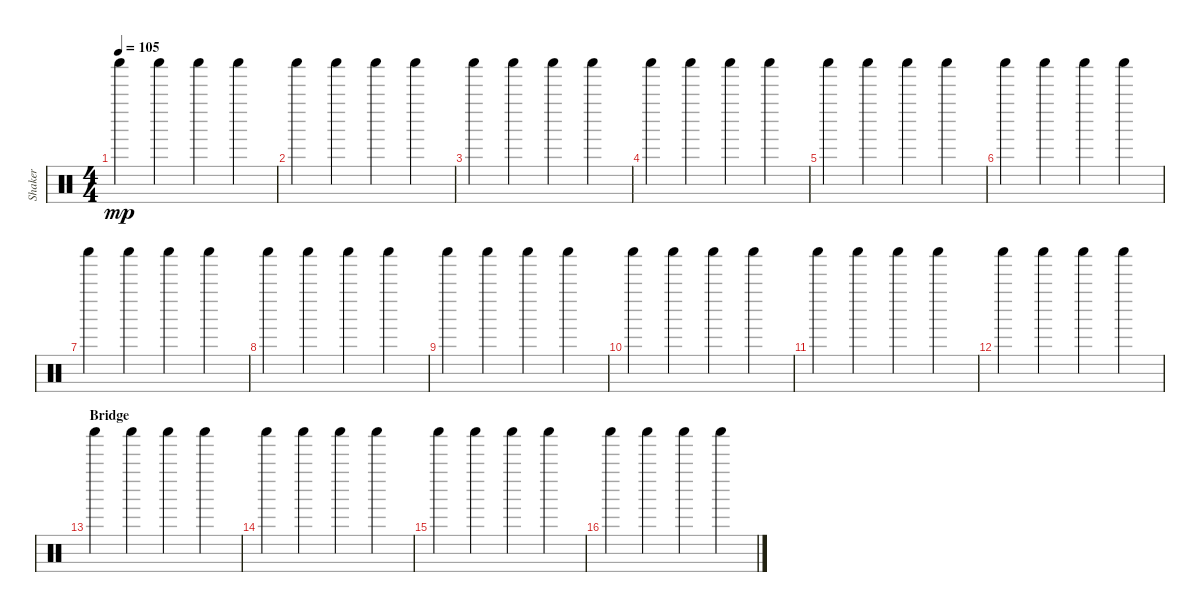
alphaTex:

\track ("Shaker" "Shaker") {instrument percussion}
\staff {score}
\articulation defaults
\ts (4 4)
\tempo 105
\clef neutral
\ks c "Shaker (hit)".4{dy mp} "Shaker (hit)".4 "Shaker (hit)".4 "Shaker (hit)".4
|
"Shaker (hit)".4 "Shaker (hit)".4 "Shaker (hit)".4 "Shaker (hit)".4 |
"Shaker (hit)".4 "Shaker (hit)".4 "Shaker (hit)".4 "Shaker (hit)".4 |
"Shaker (hit)".4 "Shaker (hit)".4 "Shaker (hit)".4 "Shaker (hit)".4 |
"Shaker (hit)".4 "Shaker (hit)".4 "Shaker (hit)".4 "Shaker (hit)".4 |
"Shaker (hit)".4 "Shaker (hit)".4 "Shaker (hit)".4 "Shaker (hit)".4 |
"Shaker (hit)".4 "Shaker (hit)".4 "Shaker (hit)".4 "Shaker (hit)".4 |
"Shaker (hit)".4 "Shaker (hit)".4 "Shaker (hit)".4 "Shaker (hit)".4 |
"Shaker (hit)".4 "Shaker (hit)".4 "Shaker (hit)".4 "Shaker (hit)".4 |
"Shaker (hit)".4 "Shaker (hit)".4 "Shaker (hit)".4 "Shaker (hit)".4 |
"Shaker (hit)".4 "Shaker (hit)".4 "Shaker (hit)".4 "Shaker (hit)".4 |
"Shaker (hit)".4 "Shaker (hit)".4 "Shaker (hit)".4 "Shaker (hit)".4 |
\section ("" "Bridge")
"Shaker (hit)".4 "Shaker (hit)".4 "Shaker (hit)".4 "Shaker (hit)".4 |
"Shaker (hit)".4 "Shaker (hit)".4 "Shaker (hit)".4 "Shaker (hit)".4 |
"Shaker (hit)".4 "Shaker (hit)".4 "Shaker (hit)".4 "Shaker (hit)".4 |
"Shaker (hit)".4 "Shaker (hit)".4 "Shaker (hit)".4 "Shaker (hit)".4
